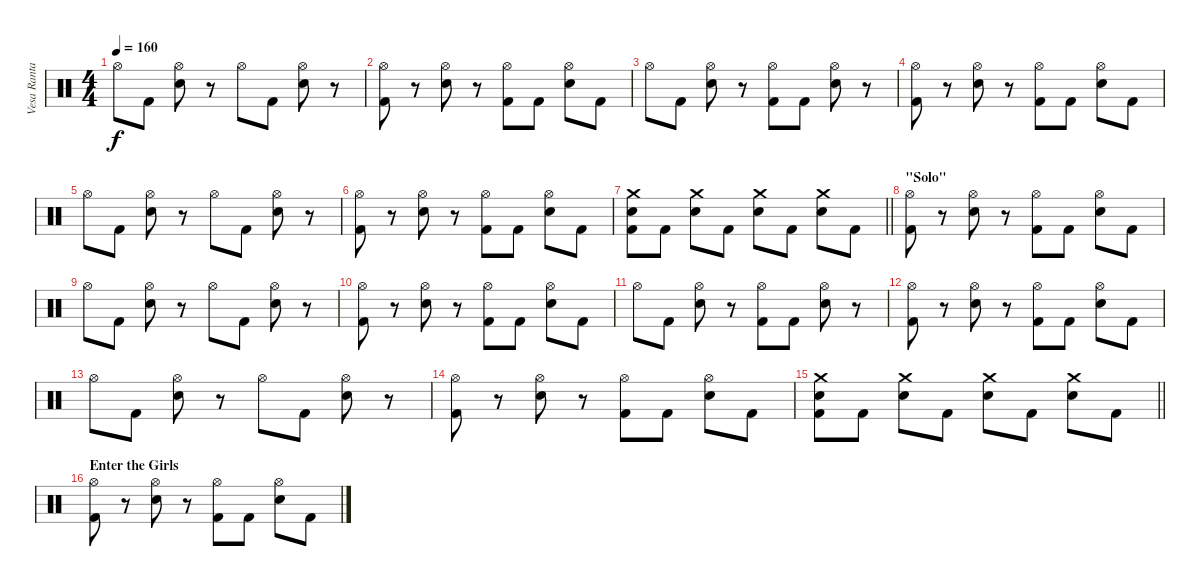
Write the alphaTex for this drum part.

\track ("Vesa Ranta" "Vesa Ranta") {instrument percussion}
\staff {score}
\articulation defaults
\ts (4 4)
\tempo 160
\clef neutral
\ks c "Hi-Hat (open)".8{dy f} "Kick (hit) 2".8
("Hi-Hat (open)" "Electric Snare (hit)").8 r.8 "Hi-Hat (open)".8 "Kick (hit) 2".8 ("Hi-Hat (open)" "Electric Snare (hit)").8 r.8 |
("Hi-Hat (open)" "Kick (hit) 2").8 r.8 ("Hi-Hat (open)" "Electric Snare (hit)").8 r.8 ("Hi-Hat (open)" "Kick (hit) 2").8 "Kick (hit) 2".8 ("Hi-Hat (open)" "Electric Snare (hit)").8 "Kick (hit) 2".8 |
"Hi-Hat (open)".8 "Kick (hit) 2".8 ("Hi-Hat (open)" "Electric Snare (hit)").8 r.8 ("Hi-Hat (open)" "Kick (hit) 2").8 "Kick (hit) 2".8 ("Hi-Hat (open)" "Electric Snare (hit)").8 r.8 |
("Hi-Hat (open)" "Kick (hit) 2").8 r.8 ("Hi-Hat (open)" "Electric Snare (hit)").8 r.8 ("Hi-Hat (open)" "Kick (hit) 2").8 "Kick (hit) 2".8 ("Hi-Hat (open)" "Electric Snare (hit)").8 "Kick (hit) 2".8 |
"Hi-Hat (open)".8 "Kick (hit) 2".8 ("Hi-Hat (open)" "Electric Snare (hit)").8 r.8 "Hi-Hat (open)".8 "Kick (hit) 2".8 ("Hi-Hat (open)" "Electric Snare (hit)").8 r.8 |
("Hi-Hat (open)" "Kick (hit) 2").8 r.8 ("Hi-Hat (open)" "Electric Snare (hit)").8 r.8 ("Hi-Hat (open)" "Kick (hit) 2").8 "Kick (hit) 2".8 ("Hi-Hat (open)" "Electric Snare (hit)").8 "Kick (hit) 2".8 |
\barLineRight lightlight
("Crash medium (hit)" "Electric Snare (hit)" "Kick (hit) 2").8 "Kick (hit) 2".8 ("Crash medium (hit)" "Electric Snare (hit)").8 "Kick (hit) 2".8 ("Crash medium (hit)" "Electric Snare (hit)").8 "Kick (hit) 2".8 ("Crash medium (hit)" "Electric Snare (hit)").8 "Kick (hit) 2".8 |
\section ("" "\"Solo\"")
("Hi-Hat (open)" "Kick (hit) 2").8 r.8 ("Hi-Hat (open)" "Electric Snare (hit)").8 r.8 ("Hi-Hat (open)" "Kick (hit) 2").8 "Kick (hit) 2".8 ("Hi-Hat (open)" "Electric Snare (hit)").8 "Kick (hit) 2".8 |
"Hi-Hat (open)".8 "Kick (hit) 2".8 ("Hi-Hat (open)" "Electric Snare (hit)").8 r.8 "Hi-Hat (open)".8 "Kick (hit) 2".8 ("Hi-Hat (open)" "Electric Snare (hit)").8 r.8 |
("Hi-Hat (open)" "Kick (hit) 2").8 r.8 ("Hi-Hat (open)" "Electric Snare (hit)").8 r.8 ("Hi-Hat (open)" "Kick (hit) 2").8 "Kick (hit) 2".8 ("Hi-Hat (open)" "Electric Snare (hit)").8 "Kick (hit) 2".8 |
"Hi-Hat (open)".8 "Kick (hit) 2".8 ("Hi-Hat (open)" "Electric Snare (hit)").8 r.8 ("Hi-Hat (open)" "Kick (hit) 2").8 "Kick (hit) 2".8 ("Hi-Hat (open)" "Electric Snare (hit)").8 r.8 |
("Hi-Hat (open)" "Kick (hit) 2").8 r.8 ("Hi-Hat (open)" "Electric Snare (hit)").8 r.8 ("Hi-Hat (open)" "Kick (hit) 2").8 "Kick (hit) 2".8 ("Hi-Hat (open)" "Electric Snare (hit)").8 "Kick (hit) 2".8 |
"Hi-Hat (open)".8 "Kick (hit) 2".8 ("Hi-Hat (open)" "Electric Snare (hit)").8 r.8 "Hi-Hat (open)".8 "Kick (hit) 2".8 ("Hi-Hat (open)" "Electric Snare (hit)").8 r.8 |
("Hi-Hat (open)" "Kick (hit) 2").8 r.8 ("Hi-Hat (open)" "Electric Snare (hit)").8 r.8 ("Hi-Hat (open)" "Kick (hit) 2").8 "Kick (hit) 2".8 ("Hi-Hat (open)" "Electric Snare (hit)").8 "Kick (hit) 2".8 |
\barLineRight lightlight
("Crash medium (hit)" "Electric Snare (hit)" "Kick (hit) 2").8 "Kick (hit) 2".8 ("Crash medium (hit)" "Electric Snare (hit)").8 "Kick (hit) 2".8 ("Crash medium (hit)" "Electric Snare (hit)").8 "Kick (hit) 2".8 ("Crash medium (hit)" "Electric Snare (hit)").8 "Kick (hit) 2".8 |
\section ("" "Enter the Girls")
("Hi-Hat (open)" "Kick (hit) 2").8 r.8 ("Hi-Hat (open)" "Electric Snare (hit)").8 r.8 ("Hi-Hat (open)" "Kick (hit) 2").8 "Kick (hit) 2".8 ("Hi-Hat (open)" "Electric Snare (hit)").8 "Kick (hit) 2".8
